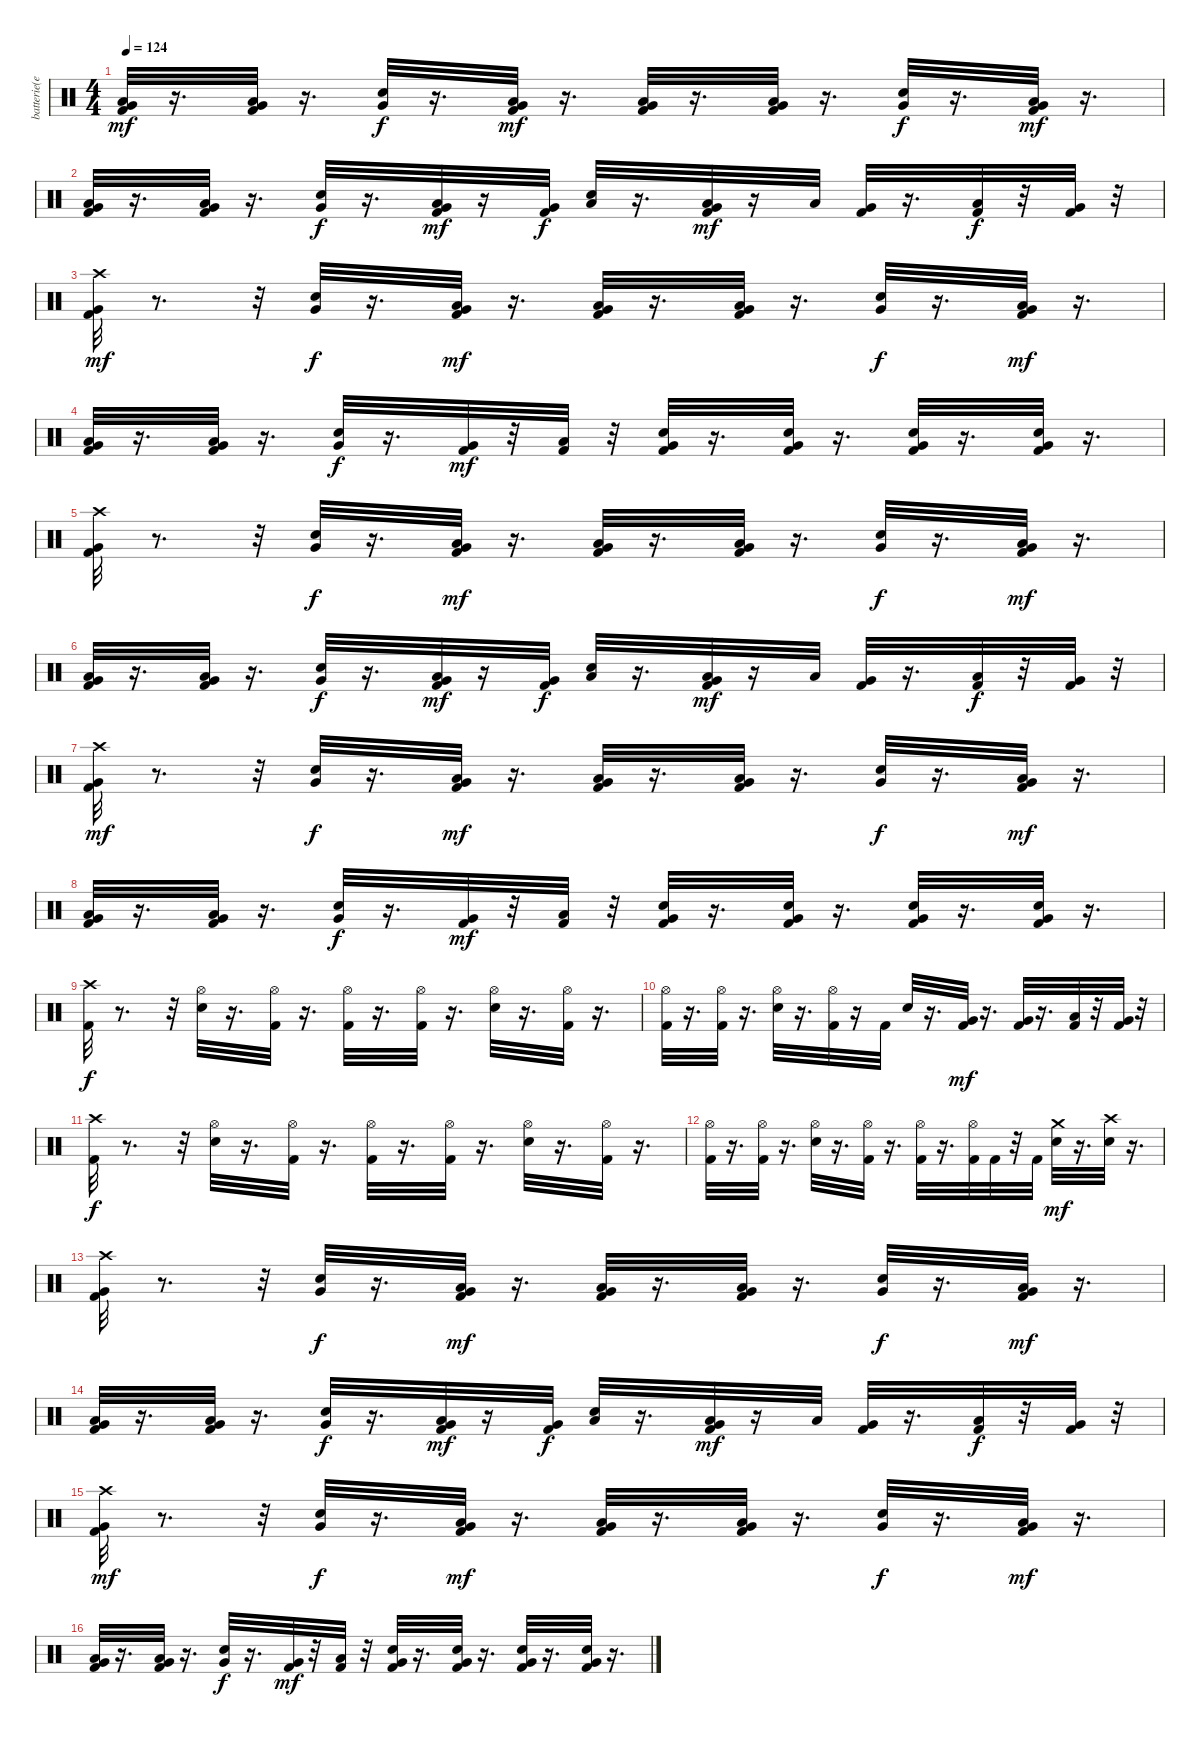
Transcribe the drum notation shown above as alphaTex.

\track ("batterie(eric)" "batterie(e") {instrument percussion}
\staff {score}
\articulation defaults
\ts (4 4)
\tempo 124
\clef neutral
\ks c
("Kick (hit) 2" "Low Floor Tom (hit)" "Very Low Tom (hit)").32{dy mf} r.16{d} ("Kick (hit) 2" "Low Floor Tom (hit)" "Very Low Tom (hit)").32 r.16{d} ("Snare (hit) 2" "Very Low Tom (hit)").32{dy f} r.16{d} ("Kick (hit) 2" "Low Floor Tom (hit)" "Very Low Tom (hit)").32{dy mf} r.16{d} ("Kick (hit) 2" "Low Floor Tom (hit)" "Very Low Tom (hit)").32 r.16{d} ("Kick (hit) 2" "Low Floor Tom (hit)" "Very Low Tom (hit)").32 r.16{d} ("Snare (hit) 2" "Very Low Tom (hit)").32{dy f} r.16{d} ("Kick (hit) 2" "Low Floor Tom (hit)" "Very Low Tom (hit)").32{dy mf} r.16{d} |
("Kick (hit) 2" "Low Floor Tom (hit)" "Very Low Tom (hit)").32 r.16{d} ("Kick (hit) 2" "Low Floor Tom (hit)" "Very Low Tom (hit)").32 r.16{d} ("Snare (hit) 2" "Very Low Tom (hit)").32{dy f} r.16{d} ("Kick (hit) 2" "Low Floor Tom (hit)" "Very Low Tom (hit)").32{dy mf} r.16 ("Kick (hit) 2" "Very Low Tom (hit)").32{dy f} ("Snare (hit) 2" "Low Floor Tom (hit)").32 r.16{d} ("Kick (hit) 2" "Low Floor Tom (hit)" "Very Low Tom (hit)").32{dy mf} r.16 "Low Tom (hit)".32 ("Kick (hit) 2" "Very Low Tom (hit)").32 r.16{d} ("Kick (hit) 2" "Low Tom (hit)").32{dy f} r.32 ("Kick (hit) 2" "Very Low Tom (hit)").32 r.32 |
("Kick (hit) 2" "Very Low Tom (hit)" "Crash high (hit)").32{dy mf} r.8{d} r.32 ("Snare (hit) 2" "Very Low Tom (hit)").32{dy f} r.16{d} ("Kick (hit) 2" "Low Floor Tom (hit)" "Very Low Tom (hit)").32{dy mf} r.16{d} ("Kick (hit) 2" "Low Floor Tom (hit)" "Very Low Tom (hit)").32 r.16{d} ("Kick (hit) 2" "Low Floor Tom (hit)" "Very Low Tom (hit)").32 r.16{d} ("Snare (hit) 2" "Very Low Tom (hit)").32{dy f} r.16{d} ("Kick (hit) 2" "Low Floor Tom (hit)" "Very Low Tom (hit)").32{dy mf} r.16{d} |
("Kick (hit) 2" "Low Floor Tom (hit)" "Very Low Tom (hit)").32 r.16{d} ("Kick (hit) 2" "Low Floor Tom (hit)" "Very Low Tom (hit)").32 r.16{d} ("Snare (hit) 2" "Very Low Tom (hit)").32{dy f} r.16{d} ("Kick (hit) 2" "Very Low Tom (hit)").32{dy mf} r.32 ("Kick (hit) 2" "Low Floor Tom (hit)").32 r.32 ("Kick (hit) 2" "Snare (hit) 2" "Very Low Tom (hit)").32 r.16{d} ("Kick (hit) 2" "Snare (hit) 2" "Very Low Tom (hit)").32 r.16{d} ("Kick (hit) 2" "Snare (hit) 2" "Very Low Tom (hit)").32 r.16{d} ("Kick (hit) 2" "Snare (hit) 2" "Very Low Tom (hit)").32 r.16{d} |
("Kick (hit) 2" "Very Low Tom (hit)" "Crash high (hit)").32 r.8{d} r.32 ("Snare (hit) 2" "Very Low Tom (hit)").32{dy f} r.16{d} ("Kick (hit) 2" "Low Floor Tom (hit)" "Very Low Tom (hit)").32{dy mf} r.16{d} ("Kick (hit) 2" "Low Floor Tom (hit)" "Very Low Tom (hit)").32 r.16{d} ("Kick (hit) 2" "Low Floor Tom (hit)" "Very Low Tom (hit)").32 r.16{d} ("Snare (hit) 2" "Very Low Tom (hit)").32{dy f} r.16{d} ("Kick (hit) 2" "Low Floor Tom (hit)" "Very Low Tom (hit)").32{dy mf} r.16{d} |
("Kick (hit) 2" "Low Floor Tom (hit)" "Very Low Tom (hit)").32 r.16{d} ("Kick (hit) 2" "Low Floor Tom (hit)" "Very Low Tom (hit)").32 r.16{d} ("Snare (hit) 2" "Very Low Tom (hit)").32{dy f} r.16{d} ("Kick (hit) 2" "Low Floor Tom (hit)" "Very Low Tom (hit)").32{dy mf} r.16 ("Kick (hit) 2" "Very Low Tom (hit)").32{dy f} ("Snare (hit) 2" "Low Floor Tom (hit)").32 r.16{d} ("Kick (hit) 2" "Low Floor Tom (hit)" "Very Low Tom (hit)").32{dy mf} r.16 "Low Tom (hit)".32 ("Kick (hit) 2" "Very Low Tom (hit)").32 r.16{d} ("Kick (hit) 2" "Low Tom (hit)").32{dy f} r.32 ("Kick (hit) 2" "Very Low Tom (hit)").32 r.32 |
("Kick (hit) 2" "Very Low Tom (hit)" "Crash high (hit)").32{dy mf} r.8{d} r.32 ("Snare (hit) 2" "Very Low Tom (hit)").32{dy f} r.16{d} ("Kick (hit) 2" "Low Floor Tom (hit)" "Very Low Tom (hit)").32{dy mf} r.16{d} ("Kick (hit) 2" "Low Floor Tom (hit)" "Very Low Tom (hit)").32 r.16{d} ("Kick (hit) 2" "Low Floor Tom (hit)" "Very Low Tom (hit)").32 r.16{d} ("Snare (hit) 2" "Very Low Tom (hit)").32{dy f} r.16{d} ("Kick (hit) 2" "Low Floor Tom (hit)" "Very Low Tom (hit)").32{dy mf} r.16{d} |
("Kick (hit) 2" "Low Floor Tom (hit)" "Very Low Tom (hit)").32 r.16{d} ("Kick (hit) 2" "Low Floor Tom (hit)" "Very Low Tom (hit)").32 r.16{d} ("Snare (hit) 2" "Very Low Tom (hit)").32{dy f} r.16{d} ("Kick (hit) 2" "Very Low Tom (hit)").32{dy mf} r.32 ("Kick (hit) 2" "Low Floor Tom (hit)").32 r.32 ("Kick (hit) 2" "Snare (hit) 2" "Very Low Tom (hit)").32 r.16{d} ("Kick (hit) 2" "Snare (hit) 2" "Very Low Tom (hit)").32 r.16{d} ("Kick (hit) 2" "Snare (hit) 2" "Very Low Tom (hit)").32 r.16{d} ("Kick (hit) 2" "Snare (hit) 2" "Very Low Tom (hit)").32 r.16{d} |
("Kick (hit) 2" "Crash high (hit)").32{dy f} r.8{d} r.32 ("Snare (hit) 2" "Hi-Hat (open)").32 r.16{d} ("Kick (hit) 2" "Hi-Hat (open)").32 r.16{d} ("Kick (hit) 2" "Hi-Hat (open)").32 r.16{d} ("Kick (hit) 2" "Hi-Hat (open)").32 r.16{d} ("Snare (hit) 2" "Hi-Hat (open)").32 r.16{d} ("Kick (hit) 2" "Hi-Hat (open)").32 r.16{d} |
("Kick (hit) 2" "Hi-Hat (open)").32 r.16{d} ("Kick (hit) 2" "Hi-Hat (open)").32 r.16{d} ("Snare (hit) 2" "Hi-Hat (open)").32 r.16{d} ("Kick (hit) 2" "Hi-Hat (open)").32 r.16 "Kick (hit) 2".32 "Snare (hit) 2".32 r.16{d} ("Kick (hit) 2" "Very Low Tom (hit)").32{dy mf} r.16{d} ("Kick (hit) 2" "Very Low Tom (hit)").32 r.16{d} ("Kick (hit) 2" "Low Tom (hit)").32 r.32 ("Kick (hit) 2" "Very Low Tom (hit)").32 r.32 |
("Kick (hit) 2" "Crash high (hit)").32{dy f} r.8{d} r.32 ("Snare (hit) 2" "Hi-Hat (open)").32 r.16{d} ("Kick (hit) 2" "Hi-Hat (open)").32 r.16{d} ("Kick (hit) 2" "Hi-Hat (open)").32 r.16{d} ("Kick (hit) 2" "Hi-Hat (open)").32 r.16{d} ("Snare (hit) 2" "Hi-Hat (open)").32 r.16{d} ("Kick (hit) 2" "Hi-Hat (open)").32 r.16{d} |
("Kick (hit) 2" "Hi-Hat (open)").32 r.16{d} ("Kick (hit) 2" "Hi-Hat (open)").32 r.16{d} ("Snare (hit) 2" "Hi-Hat (open)").32 r.16{d} ("Kick (hit) 2" "Hi-Hat (open)").32 r.16{d} ("Kick (hit) 2" "Hi-Hat (open)").32 r.16{d} ("Kick (hit) 2" "Hi-Hat (open)").32 "Kick (hit) 2".32 r.32 "Kick (hit) 2".32 ("Snare (hit) 2" "Crash medium (hit)").32{dy mf} r.16{d} ("Snare (hit) 2" "Crash high (hit)").32 r.16{d} |
("Kick (hit) 2" "Very Low Tom (hit)" "Crash high (hit)").32 r.8{d} r.32 ("Snare (hit) 2" "Very Low Tom (hit)").32{dy f} r.16{d} ("Kick (hit) 2" "Low Floor Tom (hit)" "Very Low Tom (hit)").32{dy mf} r.16{d} ("Kick (hit) 2" "Low Floor Tom (hit)" "Very Low Tom (hit)").32 r.16{d} ("Kick (hit) 2" "Low Floor Tom (hit)" "Very Low Tom (hit)").32 r.16{d} ("Snare (hit) 2" "Very Low Tom (hit)").32{dy f} r.16{d} ("Kick (hit) 2" "Low Floor Tom (hit)" "Very Low Tom (hit)").32{dy mf} r.16{d} |
("Kick (hit) 2" "Low Floor Tom (hit)" "Very Low Tom (hit)").32 r.16{d} ("Kick (hit) 2" "Low Floor Tom (hit)" "Very Low Tom (hit)").32 r.16{d} ("Snare (hit) 2" "Very Low Tom (hit)").32{dy f} r.16{d} ("Kick (hit) 2" "Low Floor Tom (hit)" "Very Low Tom (hit)").32{dy mf} r.16 ("Kick (hit) 2" "Very Low Tom (hit)").32{dy f} ("Snare (hit) 2" "Low Floor Tom (hit)").32 r.16{d} ("Kick (hit) 2" "Low Floor Tom (hit)" "Very Low Tom (hit)").32{dy mf} r.16 "Low Tom (hit)".32 ("Kick (hit) 2" "Very Low Tom (hit)").32 r.16{d} ("Kick (hit) 2" "Low Tom (hit)").32{dy f} r.32 ("Kick (hit) 2" "Very Low Tom (hit)").32 r.32 |
("Kick (hit) 2" "Very Low Tom (hit)" "Crash high (hit)").32{dy mf} r.8{d} r.32 ("Snare (hit) 2" "Very Low Tom (hit)").32{dy f} r.16{d} ("Kick (hit) 2" "Low Floor Tom (hit)" "Very Low Tom (hit)").32{dy mf} r.16{d} ("Kick (hit) 2" "Low Floor Tom (hit)" "Very Low Tom (hit)").32 r.16{d} ("Kick (hit) 2" "Low Floor Tom (hit)" "Very Low Tom (hit)").32 r.16{d} ("Snare (hit) 2" "Very Low Tom (hit)").32{dy f} r.16{d} ("Kick (hit) 2" "Low Floor Tom (hit)" "Very Low Tom (hit)").32{dy mf} r.16{d} |
("Kick (hit) 2" "Low Floor Tom (hit)" "Very Low Tom (hit)").32 r.16{d} ("Kick (hit) 2" "Low Floor Tom (hit)" "Very Low Tom (hit)").32 r.16{d} ("Snare (hit) 2" "Very Low Tom (hit)").32{dy f} r.16{d} ("Kick (hit) 2" "Very Low Tom (hit)").32{dy mf} r.32 ("Kick (hit) 2" "Low Floor Tom (hit)").32 r.32 ("Kick (hit) 2" "Snare (hit) 2" "Very Low Tom (hit)").32 r.16{d} ("Kick (hit) 2" "Snare (hit) 2" "Very Low Tom (hit)").32 r.16{d} ("Kick (hit) 2" "Snare (hit) 2" "Very Low Tom (hit)").32 r.16{d} ("Kick (hit) 2" "Snare (hit) 2" "Very Low Tom (hit)").32 r.16{d}
